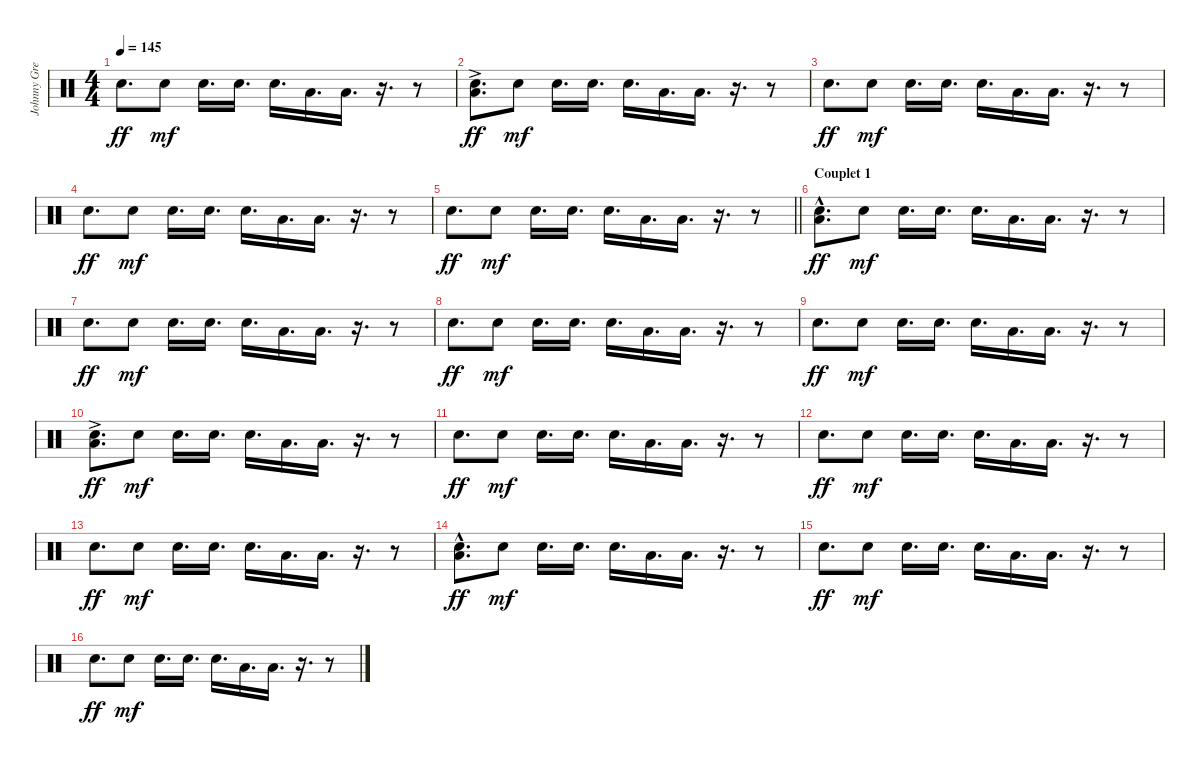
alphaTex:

\track ("Johnny Greenwood" "Johnny Gre") {instrument percussion}
\staff {score}
\articulation defaults
\ts (4 4)
\tempo 145
\clef neutral
\ks c "Snare (hit) 2".8{d dy ff} "Snare (hit) 2".8{dy mf} "Snare (hit) 2".16{d} "Snare (hit) 2".16{d} "Snare (hit) 2".16{d} "Low Floor Tom (hit)".16{d} "Low Floor Tom (hit)".16{d}
r.16{d} r.8 |
("Snare (hit) 2" "Low Floor Tom (hit)"{ac}).8{d dy ff} "Snare (hit) 2".8{dy mf} "Snare (hit) 2".16{d} "Snare (hit) 2".16{d} "Snare (hit) 2".16{d} "Low Floor Tom (hit)".16{d} "Low Floor Tom (hit)".16{d} r.16{d} r.8 |
"Snare (hit) 2".8{d dy ff} "Snare (hit) 2".8{dy mf} "Snare (hit) 2".16{d} "Snare (hit) 2".16{d} "Snare (hit) 2".16{d} "Low Floor Tom (hit)".16{d} "Low Floor Tom (hit)".16{d} r.16{d} r.8 |
"Snare (hit) 2".8{d dy ff} "Snare (hit) 2".8{dy mf} "Snare (hit) 2".16{d} "Snare (hit) 2".16{d} "Snare (hit) 2".16{d} "Low Floor Tom (hit)".16{d} "Low Floor Tom (hit)".16{d} r.16{d} r.8 |
\barLineRight lightlight "Snare (hit) 2".8{d dy ff} "Snare (hit) 2".8{dy mf} "Snare (hit) 2".16{d} "Snare (hit) 2".16{d} "Snare (hit) 2".16{d} "Low Floor Tom (hit)".16{d} "Low Floor Tom (hit)".16{d}
r.16{d} r.8 |
\section ("" "Couplet 1")
("Snare (hit) 2" "Low Floor Tom (hit)"{hac}).8{d dy ff} "Snare (hit) 2".8{dy mf} "Snare (hit) 2".16{d} "Snare (hit) 2".16{d} "Snare (hit) 2".16{d} "Low Floor Tom (hit)".16{d} "Low Floor Tom (hit)".16{d} r.16{d} r.8 |
"Snare (hit) 2".8{d dy ff} "Snare (hit) 2".8{dy mf} "Snare (hit) 2".16{d} "Snare (hit) 2".16{d} "Snare (hit) 2".16{d} "Low Floor Tom (hit)".16{d} "Low Floor Tom (hit)".16{d} r.16{d} r.8 |
"Snare (hit) 2".8{d dy ff} "Snare (hit) 2".8{dy mf} "Snare (hit) 2".16{d} "Snare (hit) 2".16{d} "Snare (hit) 2".16{d} "Low Floor Tom (hit)".16{d} "Low Floor Tom (hit)".16{d} r.16{d} r.8 |
"Snare (hit) 2".8{d dy ff} "Snare (hit) 2".8{dy mf} "Snare (hit) 2".16{d} "Snare (hit) 2".16{d} "Snare (hit) 2".16{d} "Low Floor Tom (hit)".16{d} "Low Floor Tom (hit)".16{d} r.16{d} r.8 |
("Snare (hit) 2" "Low Floor Tom (hit)"{ac}).8{d dy ff} "Snare (hit) 2".8{dy mf} "Snare (hit) 2".16{d} "Snare (hit) 2".16{d} "Snare (hit) 2".16{d} "Low Floor Tom (hit)".16{d} "Low Floor Tom (hit)".16{d} r.16{d} r.8 |
"Snare (hit) 2".8{d dy ff} "Snare (hit) 2".8{dy mf} "Snare (hit) 2".16{d} "Snare (hit) 2".16{d} "Snare (hit) 2".16{d} "Low Floor Tom (hit)".16{d} "Low Floor Tom (hit)".16{d} r.16{d} r.8 |
"Snare (hit) 2".8{d dy ff} "Snare (hit) 2".8{dy mf} "Snare (hit) 2".16{d} "Snare (hit) 2".16{d} "Snare (hit) 2".16{d} "Low Floor Tom (hit)".16{d} "Low Floor Tom (hit)".16{d} r.16{d} r.8 |
"Snare (hit) 2".8{d dy ff} "Snare (hit) 2".8{dy mf} "Snare (hit) 2".16{d} "Snare (hit) 2".16{d} "Snare (hit) 2".16{d} "Low Floor Tom (hit)".16{d} "Low Floor Tom (hit)".16{d} r.16{d} r.8 |
("Snare (hit) 2" "Low Floor Tom (hit)"{hac}).8{d dy ff} "Snare (hit) 2".8{dy mf} "Snare (hit) 2".16{d} "Snare (hit) 2".16{d} "Snare (hit) 2".16{d} "Low Floor Tom (hit)".16{d} "Low Floor Tom (hit)".16{d} r.16{d} r.8 |
"Snare (hit) 2".8{d dy ff} "Snare (hit) 2".8{dy mf} "Snare (hit) 2".16{d} "Snare (hit) 2".16{d} "Snare (hit) 2".16{d} "Low Floor Tom (hit)".16{d} "Low Floor Tom (hit)".16{d} r.16{d} r.8 |
"Snare (hit) 2".8{d dy ff} "Snare (hit) 2".8{dy mf} "Snare (hit) 2".16{d} "Snare (hit) 2".16{d} "Snare (hit) 2".16{d} "Low Floor Tom (hit)".16{d} "Low Floor Tom (hit)".16{d} r.16{d} r.8
